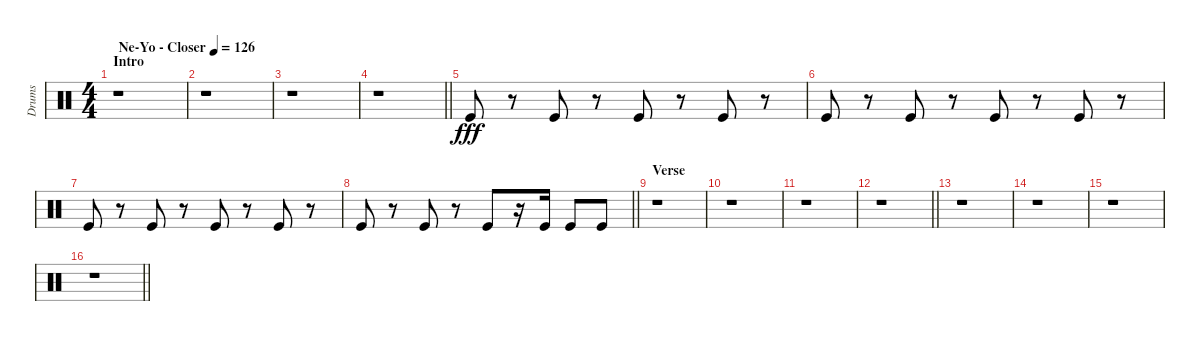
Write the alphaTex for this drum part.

\track ("Drums" "Drums") {instrument percussion}
\staff {score}
\articulation defaults
\ts (4 4)
\section ("" "Intro")
\tempo (126 "Ne-Yo - Closer")
\clef neutral
\ks c
r.1{dy fff} |
r.1 |
r.1 |
\barLineRight lightlight
r.1 |
"Kick (hit)".8 r.8 "Kick (hit)".8 r.8 "Kick (hit)".8 r.8 "Kick (hit)".8 r.8 |
"Kick (hit)".8 r.8 "Kick (hit)".8 r.8 "Kick (hit)".8 r.8 "Kick (hit)".8 r.8 |
"Kick (hit)".8 r.8 "Kick (hit)".8 r.8 "Kick (hit)".8 r.8 "Kick (hit)".8 r.8 |
\barLineRight lightlight "Kick (hit)".8
r.8 "Kick (hit)".8 r.8 "Kick (hit)".8 r.16 "Kick (hit)".16 "Kick (hit)".8 "Kick (hit)".8 |
\section ("" "Verse")
r.1 |
r.1 |
r.1 |
\barLineRight lightlight
r.1 |
r.1 |
r.1 |
r.1 |
\barLineRight lightlight
r.1
